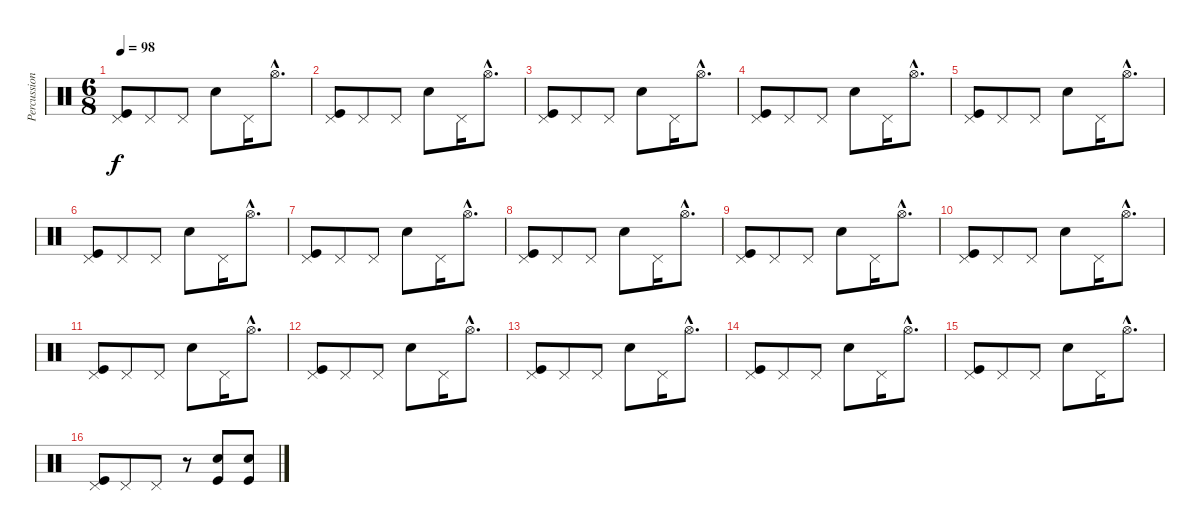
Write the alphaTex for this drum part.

\track ("Percussion" "Percussion") {instrument percussion}
\staff {score}
\articulation defaults
\ts (6 8)
\tempo 98
\clef neutral
\ks c
("Pedal Hi-Hat (hit)" "Kick (hit)").8{dy f} "Pedal Hi-Hat (hit)".8 "Pedal Hi-Hat (hit)".8 "Snare (hit) 2".8 "Pedal Hi-Hat (hit)".16 "Hi-Hat (open)"{hac}.8{d} |
("Pedal Hi-Hat (hit)" "Kick (hit)").8 "Pedal Hi-Hat (hit)".8 "Pedal Hi-Hat (hit)".8 "Snare (hit) 2".8 "Pedal Hi-Hat (hit)".16 "Hi-Hat (open)"{hac}.8{d} |
("Pedal Hi-Hat (hit)" "Kick (hit)").8 "Pedal Hi-Hat (hit)".8 "Pedal Hi-Hat (hit)".8 "Snare (hit) 2".8 "Pedal Hi-Hat (hit)".16 "Hi-Hat (open)"{hac}.8{d} |
("Pedal Hi-Hat (hit)" "Kick (hit)").8 "Pedal Hi-Hat (hit)".8 "Pedal Hi-Hat (hit)".8 "Snare (hit) 2".8 "Pedal Hi-Hat (hit)".16 "Hi-Hat (open)"{hac}.8{d} |
("Pedal Hi-Hat (hit)" "Kick (hit)").8 "Pedal Hi-Hat (hit)".8 "Pedal Hi-Hat (hit)".8 "Snare (hit) 2".8 "Pedal Hi-Hat (hit)".16 "Hi-Hat (open)"{hac}.8{d} |
("Pedal Hi-Hat (hit)" "Kick (hit)").8 "Pedal Hi-Hat (hit)".8 "Pedal Hi-Hat (hit)".8 "Snare (hit) 2".8 "Pedal Hi-Hat (hit)".16 "Hi-Hat (open)"{hac}.8{d} |
("Pedal Hi-Hat (hit)" "Kick (hit)").8 "Pedal Hi-Hat (hit)".8 "Pedal Hi-Hat (hit)".8 "Snare (hit) 2".8 "Pedal Hi-Hat (hit)".16 "Hi-Hat (open)"{hac}.8{d} |
("Pedal Hi-Hat (hit)" "Kick (hit)").8 "Pedal Hi-Hat (hit)".8 "Pedal Hi-Hat (hit)".8 "Snare (hit) 2".8 "Pedal Hi-Hat (hit)".16 "Hi-Hat (open)"{hac}.8{d} |
("Pedal Hi-Hat (hit)" "Kick (hit)").8 "Pedal Hi-Hat (hit)".8 "Pedal Hi-Hat (hit)".8 "Snare (hit) 2".8 "Pedal Hi-Hat (hit)".16 "Hi-Hat (open)"{hac}.8{d} |
("Pedal Hi-Hat (hit)" "Kick (hit)").8 "Pedal Hi-Hat (hit)".8 "Pedal Hi-Hat (hit)".8 "Snare (hit) 2".8 "Pedal Hi-Hat (hit)".16 "Hi-Hat (open)"{hac}.8{d} |
("Pedal Hi-Hat (hit)" "Kick (hit)").8 "Pedal Hi-Hat (hit)".8 "Pedal Hi-Hat (hit)".8 "Snare (hit) 2".8 "Pedal Hi-Hat (hit)".16 "Hi-Hat (open)"{hac}.8{d} |
("Pedal Hi-Hat (hit)" "Kick (hit)").8 "Pedal Hi-Hat (hit)".8 "Pedal Hi-Hat (hit)".8 "Snare (hit) 2".8 "Pedal Hi-Hat (hit)".16 "Hi-Hat (open)"{hac}.8{d} |
("Pedal Hi-Hat (hit)" "Kick (hit)").8 "Pedal Hi-Hat (hit)".8 "Pedal Hi-Hat (hit)".8 "Snare (hit) 2".8 "Pedal Hi-Hat (hit)".16 "Hi-Hat (open)"{hac}.8{d} |
("Pedal Hi-Hat (hit)" "Kick (hit)").8 "Pedal Hi-Hat (hit)".8 "Pedal Hi-Hat (hit)".8 "Snare (hit) 2".8 "Pedal Hi-Hat (hit)".16 "Hi-Hat (open)"{hac}.8{d} |
("Pedal Hi-Hat (hit)" "Kick (hit)").8 "Pedal Hi-Hat (hit)".8 "Pedal Hi-Hat (hit)".8 "Snare (hit) 2".8 "Pedal Hi-Hat (hit)".16 "Hi-Hat (open)"{hac}.8{d} |
("Pedal Hi-Hat (hit)" "Kick (hit)").8 "Pedal Hi-Hat (hit)".8 "Pedal Hi-Hat (hit)".8 r.8 ("Kick (hit)" "Snare (hit) 2").8 ("Kick (hit)" "Snare (hit) 2").8
